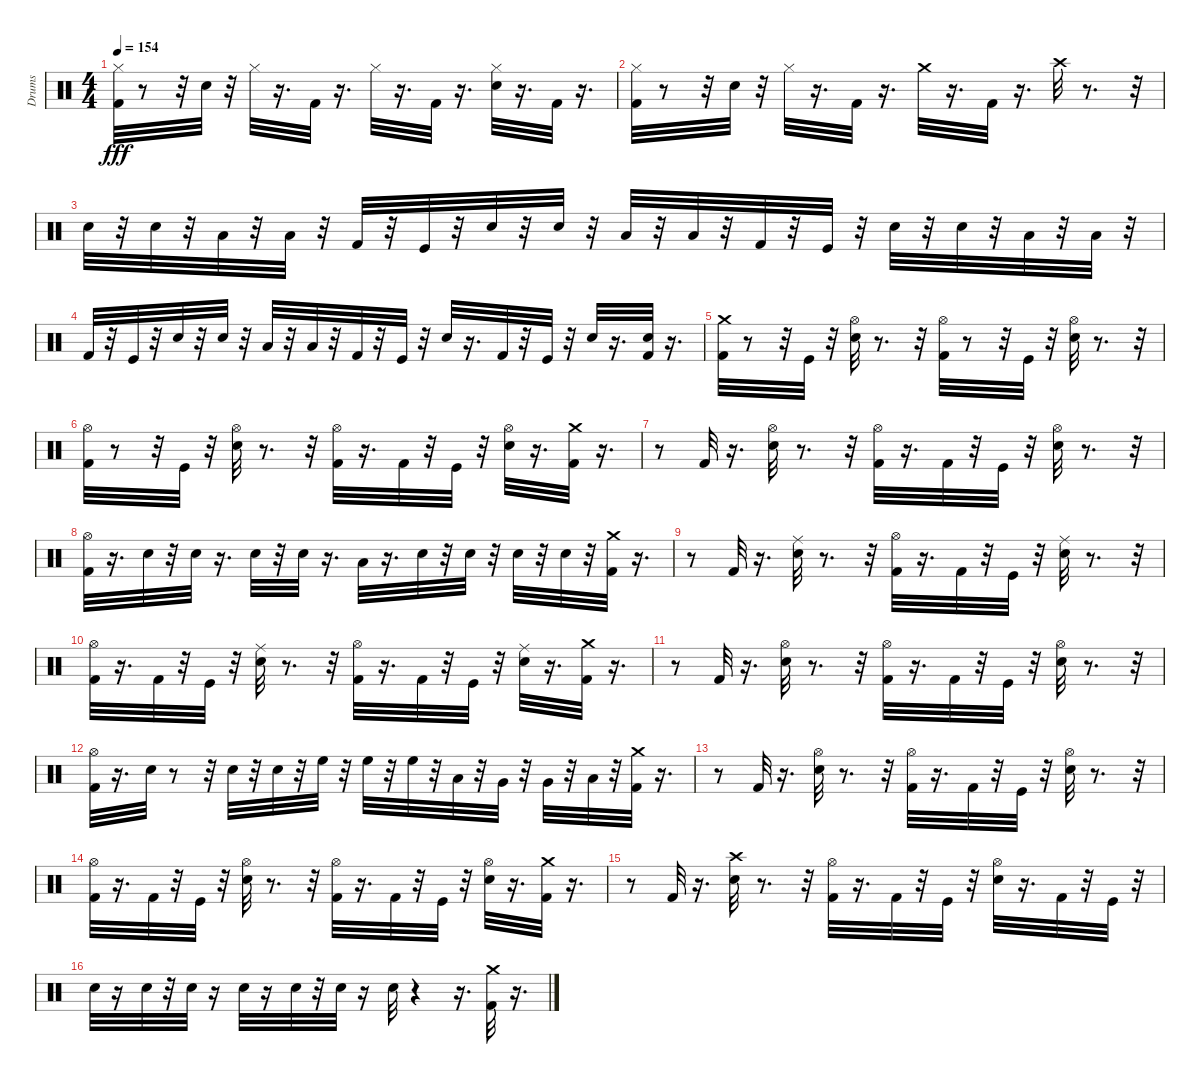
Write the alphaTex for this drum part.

\track ("Drums" "Drums") {instrument percussion}
\staff {score}
\articulation defaults
\ts (4 4)
\tempo 154
\clef neutral
\ks c
("Kick (hit) 2" "Hi-Hat (closed)").32{dy fff} r.8 r.32 "Snare (hit) 2".32 r.32 "Hi-Hat (closed)".32 r.16{d} "Kick (hit) 2".32 r.16{d} "Hi-Hat (closed)".32 r.16{d} "Kick (hit) 2".32 r.16{d} ("Snare (hit) 2" "Hi-Hat (closed)").32 r.16{d} "Kick (hit) 2".32 r.16{d} |
("Kick (hit) 2" "Hi-Hat (closed)").32 r.8 r.32 "Snare (hit) 2".32 r.32 "Hi-Hat (closed)".32 r.16{d} "Kick (hit) 2".32 r.16{d} "Crash medium (hit)".32 r.16{d} "Kick (hit) 2".32 r.16{d} "Crash high (hit)".32 r.8{d} r.32 |
"Snare (hit) 2".32 r.32 "Snare (hit) 2".32 r.32 "Low Tom (hit)".32 r.32 "Low Tom (hit)".32 r.32 "Kick (hit) 2".32 r.32 "Kick (hit)".32 r.32 "Snare (hit) 2".32 r.32 "Snare (hit) 2".32 r.32 "Low Tom (hit)".32 r.32 "Low Tom (hit)".32 r.32 "Kick (hit) 2".32 r.32 "Kick (hit)".32 r.32 "Snare (hit) 2".32 r.32 "Snare (hit) 2".32 r.32 "Low Tom (hit)".32 r.32 "Low Tom (hit)".32 r.32 |
"Kick (hit) 2".32 r.32 "Kick (hit)".32 r.32 "Snare (hit) 2".32 r.32 "Snare (hit) 2".32 r.32 "Low Tom (hit)".32 r.32 "Low Tom (hit)".32 r.32 "Kick (hit) 2".32 r.32 "Kick (hit)".32 r.32 "Snare (hit) 2".32 r.16{d} "Kick (hit) 2".32 r.32 "Kick (hit)".32 r.32 "Snare (hit) 2".32 r.16{d} ("Kick (hit) 2" "Snare (hit) 2").32 r.16{d} |
("Kick (hit) 2" "Crash medium (hit)").32 r.8 r.32 "Kick (hit)".32 r.32 ("Snare (hit) 2" "Hi-Hat (open)").32 r.8{d} r.32 ("Kick (hit) 2" "Hi-Hat (open)").32 r.8 r.32 "Kick (hit)".32 r.32 ("Snare (hit) 2" "Hi-Hat (open)").32 r.8{d} r.32 |
("Kick (hit) 2" "Hi-Hat (open)").32 r.8 r.32 "Kick (hit)".32 r.32 ("Snare (hit) 2" "Hi-Hat (open)").32 r.8{d} r.32 ("Kick (hit) 2" "Hi-Hat (open)").32 r.16{d} "Kick (hit) 2".32 r.32 "Kick (hit)".32 r.32 ("Snare (hit) 2" "Hi-Hat (open)").32 r.16{d} ("Kick (hit) 2" "Crash medium (hit)").32 r.16{d} |
r.8 "Kick (hit) 2".32 r.16{d} ("Snare (hit) 2" "Hi-Hat (open)").32 r.8{d} r.32 ("Kick (hit) 2" "Hi-Hat (open)").32 r.16{d} "Kick (hit) 2".32 r.32 "Kick (hit)".32 r.32 ("Snare (hit) 2" "Hi-Hat (open)").32 r.8{d} r.32 |
("Kick (hit) 2" "Hi-Hat (open)").32 r.16{d} "Snare (hit) 2".32 r.32 "Snare (hit) 2".32 r.16{d} "Snare (hit) 2".32 r.32 "Snare (hit) 2".32 r.16{d} "Low Tom (hit)".32 r.16{d} "Snare (hit) 2".32 r.32 "Snare (hit) 2".32 r.32 "Snare (hit) 2".32 r.32 "Snare (hit) 2".32 r.32 ("Kick (hit) 2" "Crash medium (hit)").32 r.16{d} |
r.8 "Kick (hit) 2".32 r.16{d} ("Snare (hit) 2" "Ride (middle)").32 r.8{d} r.32 ("Kick (hit) 2" "Hi-Hat (open)").32 r.16{d} "Kick (hit) 2".32 r.32 "Kick (hit)".32 r.32 ("Snare (hit) 2" "Ride (middle)").32 r.8{d} r.32 |
("Kick (hit) 2" "Hi-Hat (open)").32 r.16{d} "Kick (hit) 2".32 r.32 "Kick (hit)".32 r.32 ("Snare (hit) 2" "Ride (middle)").32 r.8{d} r.32 ("Kick (hit) 2" "Hi-Hat (open)").32 r.16{d} "Kick (hit) 2".32 r.32 "Kick (hit)".32 r.32 ("Snare (hit) 2" "Ride (middle)").32 r.16{d} ("Kick (hit) 2" "Crash medium (hit)").32 r.16{d} |
r.8 "Kick (hit) 2".32 r.16{d} ("Snare (hit) 2" "Hi-Hat (open)").32 r.8{d} r.32 ("Kick (hit) 2" "Hi-Hat (open)").32 r.16{d} "Kick (hit) 2".32 r.32 "Kick (hit)".32 r.32 ("Snare (hit) 2" "Hi-Hat (open)").32 r.8{d} r.32 |
("Kick (hit) 2" "Hi-Hat (open)").32 r.16{d} "Snare (hit) 2".32 r.8 r.32 "Snare (hit) 2".32 r.32 "Snare (hit) 2".32 r.32 "High Floor Tom (hit)".32 r.32 "High Floor Tom (hit)".32 r.32 "High Floor Tom (hit)".32 r.32 "Low Tom (hit)".32 r.32 "Very Low Tom (hit)".32 r.32 "Very Low Tom (hit)".32 r.32 "Low Floor Tom (hit)".32 r.32 ("Crash medium (hit)" "Kick (hit) 2").32 r.16{d} |
r.8 "Kick (hit) 2".32 r.16{d} ("Snare (hit) 2" "Hi-Hat (open)").32 r.8{d} r.32 ("Kick (hit) 2" "Hi-Hat (open)").32 r.16{d} "Kick (hit) 2".32 r.32 "Kick (hit)".32 r.32 ("Snare (hit) 2" "Hi-Hat (open)").32 r.8{d} r.32 |
("Kick (hit) 2" "Hi-Hat (open)").32 r.16{d} "Kick (hit) 2".32 r.32 "Kick (hit)".32 r.32 ("Snare (hit) 2" "Hi-Hat (open)").32 r.8{d} r.32 ("Kick (hit) 2" "Hi-Hat (open)").32 r.16{d} "Kick (hit) 2".32 r.32 "Kick (hit)".32 r.32 ("Snare (hit) 2" "Hi-Hat (open)").32 r.16{d} ("Kick (hit) 2" "Crash medium (hit)").32 r.16{d} |
r.8 "Kick (hit) 2".32 r.16{d} ("Snare (hit) 2" "Crash high (hit)").32 r.8{d} r.32 ("Kick (hit) 2" "Hi-Hat (open)").32 r.16{d} "Kick (hit) 2".32 r.32 "Kick (hit)".32 r.32 ("Snare (hit) 2" "Hi-Hat (open)").32 r.16{d} "Kick (hit) 2".32 r.32 "Kick (hit)".32 r.32 |
"Snare (hit) 2".32 r.16 "Snare (hit) 2".32 r.32 "Snare (hit) 2".32 r.16 "Snare (hit) 2".32 r.16 "Snare (hit) 2".32 r.32 "Snare (hit) 2".32 r.16 "Snare (hit) 2".32 r.4 r.16{d} ("Crash medium (hit)" "Kick (hit) 2").32 r.16{d}
